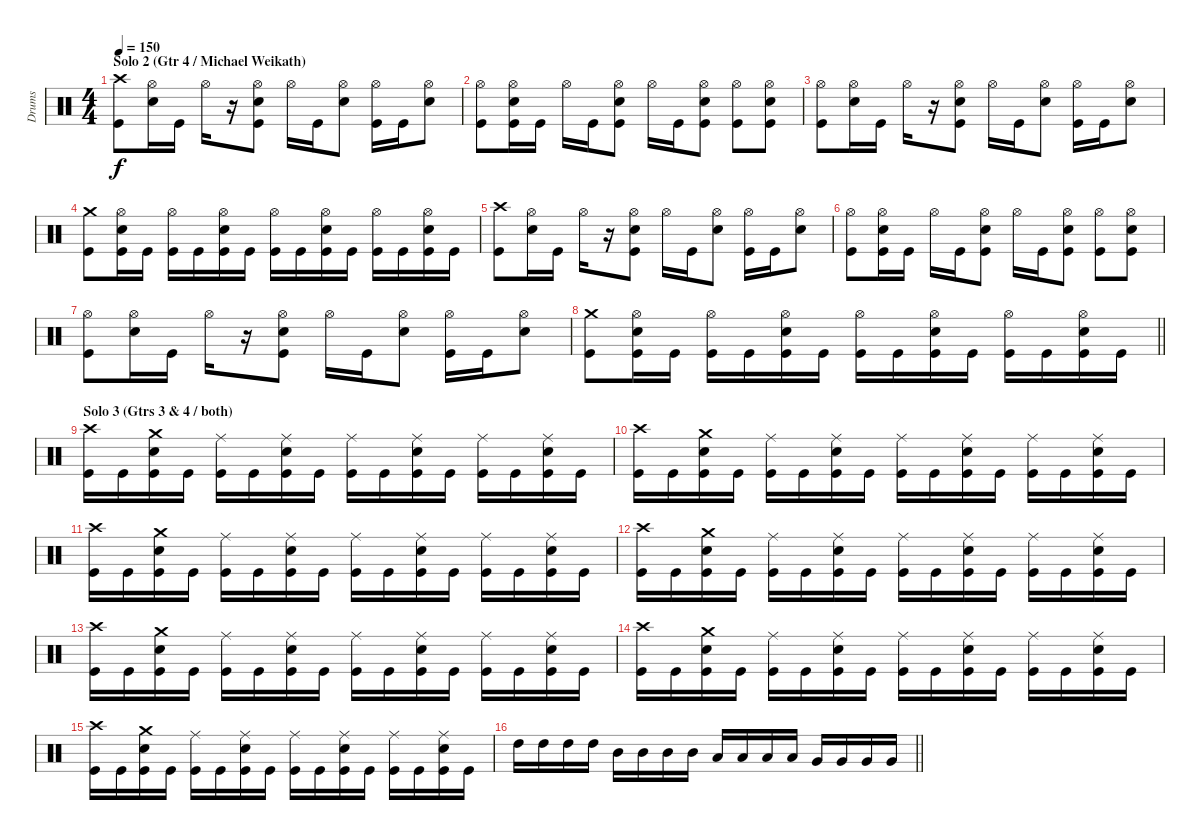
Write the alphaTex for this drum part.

\track ("Drums" "Drums") {instrument percussion}
\staff {score}
\articulation defaults
\ts (4 4)
\section ("" "Solo 2 (Gtr 4 / Michael Weikath)")
\tempo 150
\clef neutral
\ks c
("Crash high (hit)" "Kick (hit)").8{dy f} ("Hi-Hat (open)" "Snare (hit) 2").16 "Kick (hit)".16 "Hi-Hat (open)".16 r.16 ("Hi-Hat (open)" "Snare (hit) 2" "Kick (hit)").8 "Hi-Hat (open)".16 "Kick (hit)".16 ("Hi-Hat (open)" "Snare (hit) 2").8 ("Hi-Hat (open)" "Kick (hit)").16 "Kick (hit)".16 ("Hi-Hat (open)" "Snare (hit) 2").8 |
("Hi-Hat (open)" "Kick (hit)").8 ("Hi-Hat (open)" "Snare (hit) 2" "Kick (hit)").16 "Kick (hit)".16 "Hi-Hat (open)".16 "Kick (hit)".16 ("Hi-Hat (open)" "Snare (hit) 2" "Kick (hit)").8 "Hi-Hat (open)".16 "Kick (hit)".16 ("Hi-Hat (open)" "Snare (hit) 2" "Kick (hit)").8 ("Hi-Hat (open)" "Kick (hit)").8 ("Hi-Hat (open)" "Snare (hit) 2" "Kick (hit)").8 |
("Hi-Hat (open)" "Kick (hit)").8 ("Hi-Hat (open)" "Snare (hit) 2").16 "Kick (hit)".16 "Hi-Hat (open)".16 r.16 ("Hi-Hat (open)" "Snare (hit) 2" "Kick (hit)").8 "Hi-Hat (open)".16 "Kick (hit)".16 ("Hi-Hat (open)" "Snare (hit) 2").8 ("Hi-Hat (open)" "Kick (hit)").16 "Kick (hit)".16 ("Hi-Hat (open)" "Snare (hit) 2").8 |
("Crash medium (hit)" "Kick (hit)").8 ("Hi-Hat (open)" "Snare (hit) 2" "Kick (hit)").16 "Kick (hit)".16 ("Hi-Hat (open)" "Kick (hit)").16 "Kick (hit)".16 ("Hi-Hat (open)" "Snare (hit) 2" "Kick (hit)").16 "Kick (hit)".16 ("Hi-Hat (open)" "Kick (hit)").16 "Kick (hit)".16 ("Hi-Hat (open)" "Snare (hit) 2" "Kick (hit)").16 "Kick (hit)".16 ("Hi-Hat (open)" "Kick (hit)").16 "Kick (hit)".16 ("Hi-Hat (open)" "Snare (hit) 2" "Kick (hit)").16 "Kick (hit)".16 |
("Crash high (hit)" "Kick (hit)").8 ("Hi-Hat (open)" "Snare (hit) 2").16 "Kick (hit)".16 "Hi-Hat (open)".16 r.16 ("Hi-Hat (open)" "Snare (hit) 2" "Kick (hit)").8 "Hi-Hat (open)".16 "Kick (hit)".16 ("Hi-Hat (open)" "Snare (hit) 2").8 ("Hi-Hat (open)" "Kick (hit)").16 "Kick (hit)".16 ("Hi-Hat (open)" "Snare (hit) 2").8 |
("Hi-Hat (open)" "Kick (hit)").8 ("Hi-Hat (open)" "Snare (hit) 2" "Kick (hit)").16 "Kick (hit)".16 "Hi-Hat (open)".16 "Kick (hit)".16 ("Hi-Hat (open)" "Snare (hit) 2" "Kick (hit)").8 "Hi-Hat (open)".16 "Kick (hit)".16 ("Hi-Hat (open)" "Snare (hit) 2" "Kick (hit)").8 ("Hi-Hat (open)" "Kick (hit)").8 ("Hi-Hat (open)" "Snare (hit) 2" "Kick (hit)").8 |
("Hi-Hat (open)" "Kick (hit)").8 ("Hi-Hat (open)" "Snare (hit) 2").16 "Kick (hit)".16 "Hi-Hat (open)".16 r.16 ("Hi-Hat (open)" "Snare (hit) 2" "Kick (hit)").8 "Hi-Hat (open)".16 "Kick (hit)".16 ("Hi-Hat (open)" "Snare (hit) 2").8 ("Hi-Hat (open)" "Kick (hit)").16 "Kick (hit)".16 ("Hi-Hat (open)" "Snare (hit) 2").8 |
\barLineRight lightlight
("Crash medium (hit)" "Kick (hit)").8 ("Hi-Hat (open)" "Snare (hit) 2" "Kick (hit)").16 "Kick (hit)".16 ("Hi-Hat (open)" "Kick (hit)").16 "Kick (hit)".16 ("Hi-Hat (open)" "Snare (hit) 2" "Kick (hit)").16 "Kick (hit)".16 ("Hi-Hat (open)" "Kick (hit)").16 "Kick (hit)".16 ("Hi-Hat (open)" "Snare (hit) 2" "Kick (hit)").16 "Kick (hit)".16 ("Hi-Hat (open)" "Kick (hit)").16 "Kick (hit)".16 ("Hi-Hat (open)" "Snare (hit) 2" "Kick (hit)").16 "Kick (hit)".16 |
\section ("" "Solo 3 (Gtrs 3 & 4 / both)")
("Crash high (hit)" "Kick (hit)").16 "Kick (hit)".16 ("Crash medium (hit)" "Snare (hit) 2" "Kick (hit)").16 "Kick (hit)".16 ("Ride (middle)" "Kick (hit)").16 "Kick (hit)".16 ("Ride (middle)" "Snare (hit) 2" "Kick (hit)").16 "Kick (hit)".16 ("Ride (middle)" "Kick (hit)").16 "Kick (hit)".16 ("Ride (middle)" "Snare (hit) 2" "Kick (hit)").16 "Kick (hit)".16 ("Ride (middle)" "Kick (hit)").16 "Kick (hit)".16 ("Ride (middle)" "Snare (hit) 2" "Kick (hit)").16 "Kick (hit)".16 |
("Crash high (hit)" "Kick (hit)").16 "Kick (hit)".16 ("Crash medium (hit)" "Snare (hit) 2" "Kick (hit)").16 "Kick (hit)".16 ("Ride (middle)" "Kick (hit)").16 "Kick (hit)".16 ("Ride (middle)" "Snare (hit) 2" "Kick (hit)").16 "Kick (hit)".16 ("Ride (middle)" "Kick (hit)").16 "Kick (hit)".16 ("Ride (middle)" "Snare (hit) 2" "Kick (hit)").16 "Kick (hit)".16 ("Ride (middle)" "Kick (hit)").16 "Kick (hit)".16 ("Ride (middle)" "Snare (hit) 2" "Kick (hit)").16 "Kick (hit)".16 |
("Crash high (hit)" "Kick (hit)").16 "Kick (hit)".16 ("Crash medium (hit)" "Snare (hit) 2" "Kick (hit)").16 "Kick (hit)".16 ("Ride (middle)" "Kick (hit)").16 "Kick (hit)".16 ("Ride (middle)" "Snare (hit) 2" "Kick (hit)").16 "Kick (hit)".16 ("Ride (middle)" "Kick (hit)").16 "Kick (hit)".16 ("Ride (middle)" "Snare (hit) 2" "Kick (hit)").16 "Kick (hit)".16 ("Ride (middle)" "Kick (hit)").16 "Kick (hit)".16 ("Ride (middle)" "Snare (hit) 2" "Kick (hit)").16 "Kick (hit)".16 |
("Crash high (hit)" "Kick (hit)").16 "Kick (hit)".16 ("Crash medium (hit)" "Snare (hit) 2" "Kick (hit)").16 "Kick (hit)".16 ("Ride (middle)" "Kick (hit)").16 "Kick (hit)".16 ("Ride (middle)" "Snare (hit) 2" "Kick (hit)").16 "Kick (hit)".16 ("Ride (middle)" "Kick (hit)").16 "Kick (hit)".16 ("Ride (middle)" "Snare (hit) 2" "Kick (hit)").16 "Kick (hit)".16 ("Ride (middle)" "Kick (hit)").16 "Kick (hit)".16 ("Ride (middle)" "Snare (hit) 2" "Kick (hit)").16 "Kick (hit)".16 |
("Crash high (hit)" "Kick (hit)").16 "Kick (hit)".16 ("Crash medium (hit)" "Snare (hit) 2" "Kick (hit)").16 "Kick (hit)".16 ("Ride (middle)" "Kick (hit)").16 "Kick (hit)".16 ("Ride (middle)" "Snare (hit) 2" "Kick (hit)").16 "Kick (hit)".16 ("Ride (middle)" "Kick (hit)").16 "Kick (hit)".16 ("Ride (middle)" "Snare (hit) 2" "Kick (hit)").16 "Kick (hit)".16 ("Ride (middle)" "Kick (hit)").16 "Kick (hit)".16 ("Ride (middle)" "Snare (hit) 2" "Kick (hit)").16 "Kick (hit)".16 |
("Crash high (hit)" "Kick (hit)").16 "Kick (hit)".16 ("Crash medium (hit)" "Snare (hit) 2" "Kick (hit)").16 "Kick (hit)".16 ("Ride (middle)" "Kick (hit)").16 "Kick (hit)".16 ("Ride (middle)" "Snare (hit) 2" "Kick (hit)").16 "Kick (hit)".16 ("Ride (middle)" "Kick (hit)").16 "Kick (hit)".16 ("Ride (middle)" "Snare (hit) 2" "Kick (hit)").16 "Kick (hit)".16 ("Ride (middle)" "Kick (hit)").16 "Kick (hit)".16 ("Ride (middle)" "Snare (hit) 2" "Kick (hit)").16 "Kick (hit)".16 |
("Crash high (hit)" "Kick (hit)").16 "Kick (hit)".16 ("Crash medium (hit)" "Snare (hit) 2" "Kick (hit)").16 "Kick (hit)".16 ("Ride (middle)" "Kick (hit)").16 "Kick (hit)".16 ("Ride (middle)" "Snare (hit) 2" "Kick (hit)").16 "Kick (hit)".16 ("Ride (middle)" "Kick (hit)").16 "Kick (hit)".16 ("Ride (middle)" "Snare (hit) 2" "Kick (hit)").16 "Kick (hit)".16 ("Ride (middle)" "Kick (hit)").16 "Kick (hit)".16 ("Ride (middle)" "Snare (hit) 2" "Kick (hit)").16 "Kick (hit)".16 |
\barLineRight lightlight "High Tom (hit)".16 "High Tom (hit)".16 "High Tom (hit)".16 "High Tom (hit)".16 "Mid Tom (hit)".16 "Mid Tom (hit)".16 "Mid Tom (hit)".16 "Mid Tom (hit)".16 "Low Tom (hit)".16 "Low Tom (hit)".16 "Low Tom (hit)".16 "Low Tom (hit)".16 "Very Low Tom (hit)".16 "Very Low Tom (hit)".16 "Very Low Tom (hit)".16 "Very Low Tom (hit)".16
